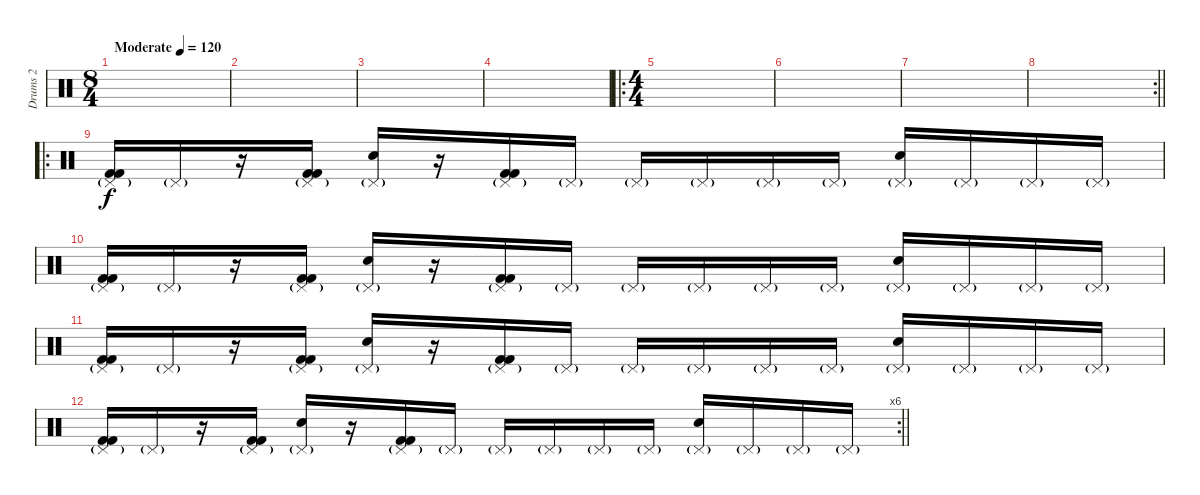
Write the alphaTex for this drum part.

\track ("Drums 2" "Drums 2") {instrument percussion}
\staff {score}
\articulation defaults
\ts (8 4)
\tempo (120 "Moderate")
\clef neutral
\ks c
|
|
|
|
\ro
\ts (4 4)
|
|
|
\rc 2
\barLineRight lightlight
|
\ro
("Pedal Hi-Hat (hit)"{g} "Kick (hit) 2" "Kick (hit) 2").16 "Pedal Hi-Hat (hit)"{g}.16 r.16 ("Pedal Hi-Hat (hit)"{g} "Kick (hit) 2" "Kick (hit) 2").16 ("Pedal Hi-Hat (hit)"{g} "Snare (hit) 2").16 r.16 ("Pedal Hi-Hat (hit)"{g} "Kick (hit) 2" "Kick (hit) 2").16 "Pedal Hi-Hat (hit)"{g}.16 "Pedal Hi-Hat (hit)"{g}.16 "Pedal Hi-Hat (hit)"{g}.16 "Pedal Hi-Hat (hit)"{g}.16 "Pedal Hi-Hat (hit)"{g}.16 ("Pedal Hi-Hat (hit)"{g} "Snare (hit) 2").16 "Pedal Hi-Hat (hit)"{g}.16 "Pedal Hi-Hat (hit)"{g}.16 "Pedal Hi-Hat (hit)"{g}.16 |
("Pedal Hi-Hat (hit)"{g} "Kick (hit) 2" "Kick (hit) 2").16 "Pedal Hi-Hat (hit)"{g}.16 r.16 ("Pedal Hi-Hat (hit)"{g} "Kick (hit) 2" "Kick (hit) 2").16 ("Pedal Hi-Hat (hit)"{g} "Snare (hit) 2").16 r.16 ("Pedal Hi-Hat (hit)"{g} "Kick (hit) 2" "Kick (hit) 2").16 "Pedal Hi-Hat (hit)"{g}.16 "Pedal Hi-Hat (hit)"{g}.16 "Pedal Hi-Hat (hit)"{g}.16 "Pedal Hi-Hat (hit)"{g}.16 "Pedal Hi-Hat (hit)"{g}.16 ("Pedal Hi-Hat (hit)"{g} "Snare (hit) 2").16 "Pedal Hi-Hat (hit)"{g}.16 "Pedal Hi-Hat (hit)"{g}.16 "Pedal Hi-Hat (hit)"{g}.16 |
("Pedal Hi-Hat (hit)"{g} "Kick (hit) 2" "Kick (hit) 2").16 "Pedal Hi-Hat (hit)"{g}.16 r.16 ("Pedal Hi-Hat (hit)"{g} "Kick (hit) 2" "Kick (hit) 2").16 ("Pedal Hi-Hat (hit)"{g} "Snare (hit) 2").16 r.16 ("Pedal Hi-Hat (hit)"{g} "Kick (hit) 2" "Kick (hit) 2").16 "Pedal Hi-Hat (hit)"{g}.16 "Pedal Hi-Hat (hit)"{g}.16 "Pedal Hi-Hat (hit)"{g}.16 "Pedal Hi-Hat (hit)"{g}.16 "Pedal Hi-Hat (hit)"{g}.16 ("Pedal Hi-Hat (hit)"{g} "Snare (hit) 2").16 "Pedal Hi-Hat (hit)"{g}.16 "Pedal Hi-Hat (hit)"{g}.16 "Pedal Hi-Hat (hit)"{g}.16 |
\rc 6
\barLineRight lightlight
("Pedal Hi-Hat (hit)"{g} "Kick (hit) 2" "Kick (hit) 2").16 "Pedal Hi-Hat (hit)"{g}.16 r.16 ("Pedal Hi-Hat (hit)"{g} "Kick (hit) 2" "Kick (hit) 2").16 ("Pedal Hi-Hat (hit)"{g} "Snare (hit) 2").16 r.16 ("Pedal Hi-Hat (hit)"{g} "Kick (hit) 2" "Kick (hit) 2").16 "Pedal Hi-Hat (hit)"{g}.16 "Pedal Hi-Hat (hit)"{g}.16 "Pedal Hi-Hat (hit)"{g}.16 "Pedal Hi-Hat (hit)"{g}.16 "Pedal Hi-Hat (hit)"{g}.16 ("Pedal Hi-Hat (hit)"{g} "Snare (hit) 2").16 "Pedal Hi-Hat (hit)"{g}.16 "Pedal Hi-Hat (hit)"{g}.16 "Pedal Hi-Hat (hit)"{g}.16
